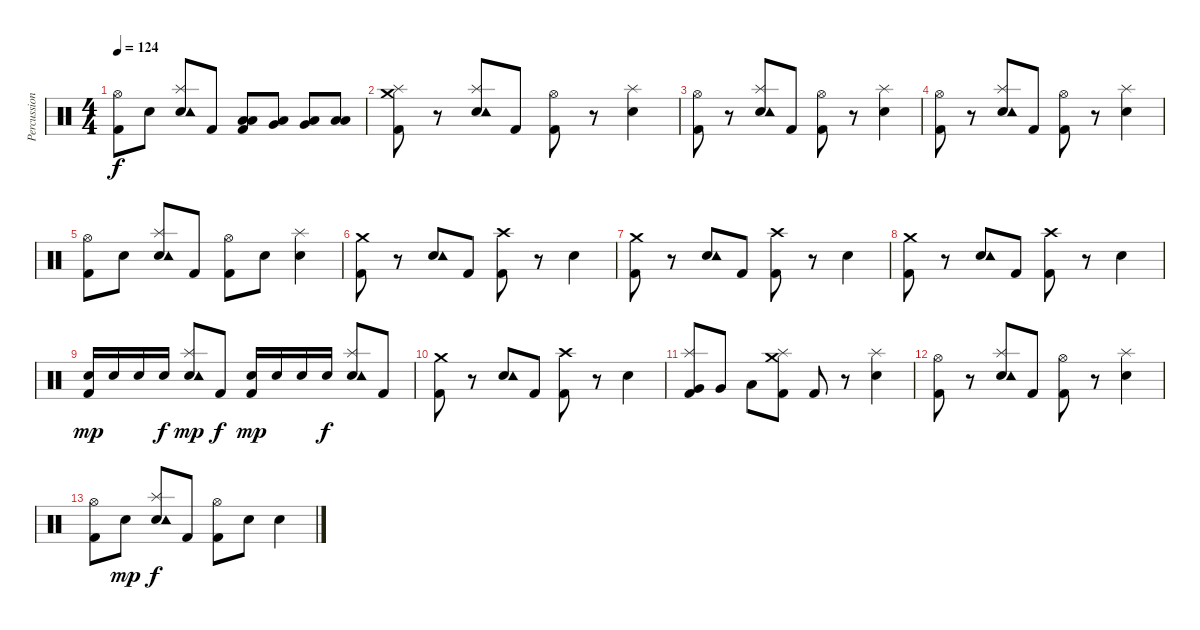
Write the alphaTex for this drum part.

\track ("Percussion" "Percussion") {instrument percussion}
\staff {score}
\articulation defaults
\ts (4 4)
\tempo 124
\clef neutral
\ks c
("Hi-Hat (open)" "Kick (hit) 2").8{dy f} "Electric Snare (hit)".8 ("Splash (hit)" "Electric Snare (hit)" "Tambourine (hit)").8 "Kick (hit) 2".8 ("Low Floor Tom (hit)" "Low Tom (hit)" "Kick (hit) 2").8 ("Low Floor Tom (hit)" "Very Low Tom (hit)").8 ("Low Floor Tom (hit)" "Very Low Tom (hit)").8 ("Low Floor Tom (hit)" "Low Tom (hit)").8 |
("Crash medium (hit)" "Splash (hit)" "Kick (hit) 2").8 r.8 ("Splash (hit)" "Electric Snare (hit)" "Tambourine (hit)").8 "Kick (hit) 2".8 ("Hi-Hat (open)" "Kick (hit) 2").8 r.8 ("Splash (hit)" "Electric Snare (hit)").4 |
("Hi-Hat (open)" "Kick (hit) 2").8 r.8 ("Splash (hit)" "Electric Snare (hit)" "Tambourine (hit)").8 "Kick (hit) 2".8 ("Hi-Hat (open)" "Kick (hit) 2").8 r.8 ("Splash (hit)" "Electric Snare (hit)").4 |
("Hi-Hat (open)" "Kick (hit) 2").8 r.8 ("Splash (hit)" "Electric Snare (hit)" "Tambourine (hit)").8 "Kick (hit) 2".8 ("Hi-Hat (open)" "Kick (hit) 2").8 r.8 ("Splash (hit)" "Electric Snare (hit)").4 |
("Hi-Hat (open)" "Kick (hit) 2").8 "Electric Snare (hit)".8 ("Splash (hit)" "Electric Snare (hit)" "Tambourine (hit)").8 "Kick (hit) 2".8 ("Hi-Hat (open)" "Kick (hit) 2").8 "Electric Snare (hit)".8 ("Splash (hit)" "Electric Snare (hit)").4 |
("Crash medium (hit)" "Kick (hit) 2").8 r.8 ("Electric Snare (hit)" "Tambourine (hit)").8 "Kick (hit) 2".8 ("Crash high (hit)" "Kick (hit) 2").8 r.8 "Electric Snare (hit)".4 |
("Crash medium (hit)" "Kick (hit) 2").8 r.8 ("Electric Snare (hit)" "Tambourine (hit)").8 "Kick (hit) 2".8 ("Crash high (hit)" "Kick (hit) 2").8 r.8 "Electric Snare (hit)".4 |
("Crash medium (hit)" "Kick (hit) 2").8 r.8 ("Electric Snare (hit)" "Tambourine (hit)").8 "Kick (hit) 2".8 ("Crash high (hit)" "Kick (hit) 2").8 r.8 "Electric Snare (hit)".4 |
("Electric Snare (hit)" "Kick (hit) 2").16{dy mp} "Electric Snare (hit)".16 "Electric Snare (hit)".16 "Electric Snare (hit)".16{dy f} ("Splash (hit)" "Electric Snare (hit)" "Tambourine (hit)").8{dy mp} "Kick (hit) 2".8{dy f} ("Electric Snare (hit)" "Kick (hit) 2").16{dy mp} "Electric Snare (hit)".16 "Electric Snare (hit)".16 "Electric Snare (hit)".16{dy f} ("Splash (hit)" "Electric Snare (hit)" "Tambourine (hit)").8 "Kick (hit) 2".8 |
("Crash medium (hit)" "Kick (hit) 2").8 r.8 ("Electric Snare (hit)" "Tambourine (hit)").8 "Kick (hit) 2".8 ("Crash high (hit)" "Kick (hit) 2").8 r.8 "Electric Snare (hit)".4 |
("Splash (hit)" "Very Low Tom (hit)" "Kick (hit) 2").8 "Very Low Tom (hit)".8 "Low Tom (hit)".8 ("Crash medium (hit)" "Splash (hit)" "Kick (hit) 2").8 "Kick (hit) 2".8 r.8 ("Splash (hit)" "Electric Snare (hit)").4 |
("Hi-Hat (open)" "Kick (hit) 2").8 r.8 ("Splash (hit)" "Electric Snare (hit)" "Tambourine (hit)").8 "Kick (hit) 2".8 ("Hi-Hat (open)" "Kick (hit) 2").8 r.8 ("Splash (hit)" "Electric Snare (hit)").4 |
("Hi-Hat (open)" "Kick (hit) 2").8 "Electric Snare (hit)".8{dy mp} ("Splash (hit)" "Electric Snare (hit)" "Tambourine (hit)").8{dy f} "Kick (hit) 2".8 ("Hi-Hat (open)" "Kick (hit) 2").8 "Electric Snare (hit)".8 "Electric Snare (hit)".4
